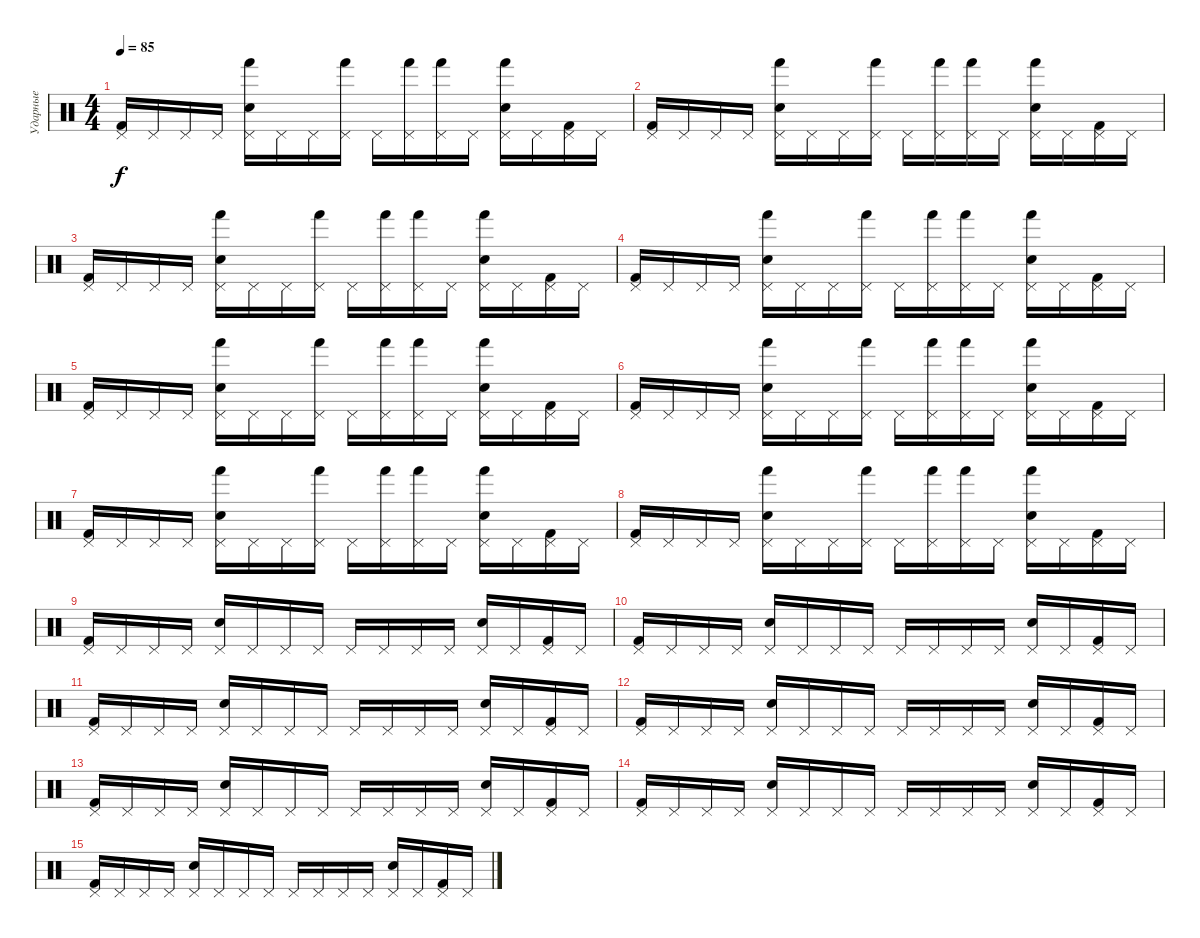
\track ("Ударные" "Ударные") {instrument percussion}
\staff {score}
\articulation defaults
\ts (4 4)
\tempo 85
\clef neutral
\ks c
("Pedal Hi-Hat (hit)" "Kick (hit) 2").16{dy f} "Pedal Hi-Hat (hit)".16 "Pedal Hi-Hat (hit)".16 "Pedal Hi-Hat (hit)".16 ("Pedal Hi-Hat (hit)" "Electric Snare (hit)" "Hand (hit)").16 "Pedal Hi-Hat (hit)".16 "Pedal Hi-Hat (hit)".16 ("Pedal Hi-Hat (hit)" "Hand (hit)").16 "Pedal Hi-Hat (hit)".16 ("Pedal Hi-Hat (hit)" "Hand (hit)").16 ("Pedal Hi-Hat (hit)" "Hand (hit)").16 "Pedal Hi-Hat (hit)".16 ("Pedal Hi-Hat (hit)" "Electric Snare (hit)" "Hand (hit)").16 "Pedal Hi-Hat (hit)".16 ("Pedal Hi-Hat (hit)" "Kick (hit) 2").16 "Pedal Hi-Hat (hit)".16 |
("Pedal Hi-Hat (hit)" "Kick (hit) 2").16 "Pedal Hi-Hat (hit)".16 "Pedal Hi-Hat (hit)".16 "Pedal Hi-Hat (hit)".16 ("Pedal Hi-Hat (hit)" "Electric Snare (hit)" "Hand (hit)").16 "Pedal Hi-Hat (hit)".16 "Pedal Hi-Hat (hit)".16 ("Pedal Hi-Hat (hit)" "Hand (hit)").16 "Pedal Hi-Hat (hit)".16 ("Pedal Hi-Hat (hit)" "Hand (hit)").16 ("Pedal Hi-Hat (hit)" "Hand (hit)").16 "Pedal Hi-Hat (hit)".16 ("Pedal Hi-Hat (hit)" "Electric Snare (hit)" "Hand (hit)").16 "Pedal Hi-Hat (hit)".16 ("Pedal Hi-Hat (hit)" "Kick (hit) 2").16 "Pedal Hi-Hat (hit)".16 |
("Pedal Hi-Hat (hit)" "Kick (hit) 2").16 "Pedal Hi-Hat (hit)".16 "Pedal Hi-Hat (hit)".16 "Pedal Hi-Hat (hit)".16 ("Pedal Hi-Hat (hit)" "Electric Snare (hit)" "Hand (hit)").16 "Pedal Hi-Hat (hit)".16 "Pedal Hi-Hat (hit)".16 ("Pedal Hi-Hat (hit)" "Hand (hit)").16 "Pedal Hi-Hat (hit)".16 ("Pedal Hi-Hat (hit)" "Hand (hit)").16 ("Pedal Hi-Hat (hit)" "Hand (hit)").16 "Pedal Hi-Hat (hit)".16 ("Pedal Hi-Hat (hit)" "Electric Snare (hit)" "Hand (hit)").16 "Pedal Hi-Hat (hit)".16 ("Pedal Hi-Hat (hit)" "Kick (hit) 2").16 "Pedal Hi-Hat (hit)".16 |
("Pedal Hi-Hat (hit)" "Kick (hit) 2").16 "Pedal Hi-Hat (hit)".16 "Pedal Hi-Hat (hit)".16 "Pedal Hi-Hat (hit)".16 ("Pedal Hi-Hat (hit)" "Electric Snare (hit)" "Hand (hit)").16 "Pedal Hi-Hat (hit)".16 "Pedal Hi-Hat (hit)".16 ("Pedal Hi-Hat (hit)" "Hand (hit)").16 "Pedal Hi-Hat (hit)".16 ("Pedal Hi-Hat (hit)" "Hand (hit)").16 ("Pedal Hi-Hat (hit)" "Hand (hit)").16 "Pedal Hi-Hat (hit)".16 ("Pedal Hi-Hat (hit)" "Electric Snare (hit)" "Hand (hit)").16 "Pedal Hi-Hat (hit)".16 ("Pedal Hi-Hat (hit)" "Kick (hit) 2").16 "Pedal Hi-Hat (hit)".16 |
("Pedal Hi-Hat (hit)" "Kick (hit) 2").16 "Pedal Hi-Hat (hit)".16 "Pedal Hi-Hat (hit)".16 "Pedal Hi-Hat (hit)".16 ("Pedal Hi-Hat (hit)" "Electric Snare (hit)" "Hand (hit)").16 "Pedal Hi-Hat (hit)".16 "Pedal Hi-Hat (hit)".16 ("Pedal Hi-Hat (hit)" "Hand (hit)").16 "Pedal Hi-Hat (hit)".16 ("Pedal Hi-Hat (hit)" "Hand (hit)").16 ("Pedal Hi-Hat (hit)" "Hand (hit)").16 "Pedal Hi-Hat (hit)".16 ("Pedal Hi-Hat (hit)" "Electric Snare (hit)" "Hand (hit)").16 "Pedal Hi-Hat (hit)".16 ("Pedal Hi-Hat (hit)" "Kick (hit) 2").16 "Pedal Hi-Hat (hit)".16 |
("Pedal Hi-Hat (hit)" "Kick (hit) 2").16 "Pedal Hi-Hat (hit)".16 "Pedal Hi-Hat (hit)".16 "Pedal Hi-Hat (hit)".16 ("Pedal Hi-Hat (hit)" "Electric Snare (hit)" "Hand (hit)").16 "Pedal Hi-Hat (hit)".16 "Pedal Hi-Hat (hit)".16 ("Pedal Hi-Hat (hit)" "Hand (hit)").16 "Pedal Hi-Hat (hit)".16 ("Pedal Hi-Hat (hit)" "Hand (hit)").16 ("Pedal Hi-Hat (hit)" "Hand (hit)").16 "Pedal Hi-Hat (hit)".16 ("Pedal Hi-Hat (hit)" "Electric Snare (hit)" "Hand (hit)").16 "Pedal Hi-Hat (hit)".16 ("Pedal Hi-Hat (hit)" "Kick (hit) 2").16 "Pedal Hi-Hat (hit)".16 |
("Pedal Hi-Hat (hit)" "Kick (hit) 2").16 "Pedal Hi-Hat (hit)".16 "Pedal Hi-Hat (hit)".16 "Pedal Hi-Hat (hit)".16 ("Pedal Hi-Hat (hit)" "Electric Snare (hit)" "Hand (hit)").16 "Pedal Hi-Hat (hit)".16 "Pedal Hi-Hat (hit)".16 ("Pedal Hi-Hat (hit)" "Hand (hit)").16 "Pedal Hi-Hat (hit)".16 ("Pedal Hi-Hat (hit)" "Hand (hit)").16 ("Pedal Hi-Hat (hit)" "Hand (hit)").16 "Pedal Hi-Hat (hit)".16 ("Pedal Hi-Hat (hit)" "Electric Snare (hit)" "Hand (hit)").16 "Pedal Hi-Hat (hit)".16 ("Pedal Hi-Hat (hit)" "Kick (hit) 2").16 "Pedal Hi-Hat (hit)".16 |
("Pedal Hi-Hat (hit)" "Kick (hit) 2").16 "Pedal Hi-Hat (hit)".16 "Pedal Hi-Hat (hit)".16 "Pedal Hi-Hat (hit)".16 ("Pedal Hi-Hat (hit)" "Electric Snare (hit)" "Hand (hit)").16 "Pedal Hi-Hat (hit)".16 "Pedal Hi-Hat (hit)".16 ("Pedal Hi-Hat (hit)" "Hand (hit)").16 "Pedal Hi-Hat (hit)".16 ("Pedal Hi-Hat (hit)" "Hand (hit)").16 ("Pedal Hi-Hat (hit)" "Hand (hit)").16 "Pedal Hi-Hat (hit)".16 ("Pedal Hi-Hat (hit)" "Electric Snare (hit)" "Hand (hit)").16 "Pedal Hi-Hat (hit)".16 ("Pedal Hi-Hat (hit)" "Kick (hit) 2").16 "Pedal Hi-Hat (hit)".16 |
("Pedal Hi-Hat (hit)" "Kick (hit) 2").16 "Pedal Hi-Hat (hit)".16 "Pedal Hi-Hat (hit)".16 "Pedal Hi-Hat (hit)".16 ("Pedal Hi-Hat (hit)" "Electric Snare (hit)").16 "Pedal Hi-Hat (hit)".16 "Pedal Hi-Hat (hit)".16 "Pedal Hi-Hat (hit)".16 "Pedal Hi-Hat (hit)".16 "Pedal Hi-Hat (hit)".16 "Pedal Hi-Hat (hit)".16 "Pedal Hi-Hat (hit)".16 ("Pedal Hi-Hat (hit)" "Electric Snare (hit)").16 "Pedal Hi-Hat (hit)".16 ("Pedal Hi-Hat (hit)" "Kick (hit) 2").16 "Pedal Hi-Hat (hit)".16 |
("Pedal Hi-Hat (hit)" "Kick (hit) 2").16 "Pedal Hi-Hat (hit)".16 "Pedal Hi-Hat (hit)".16 "Pedal Hi-Hat (hit)".16 ("Pedal Hi-Hat (hit)" "Electric Snare (hit)").16 "Pedal Hi-Hat (hit)".16 "Pedal Hi-Hat (hit)".16 "Pedal Hi-Hat (hit)".16 "Pedal Hi-Hat (hit)".16 "Pedal Hi-Hat (hit)".16 "Pedal Hi-Hat (hit)".16 "Pedal Hi-Hat (hit)".16 ("Pedal Hi-Hat (hit)" "Electric Snare (hit)").16 "Pedal Hi-Hat (hit)".16 ("Pedal Hi-Hat (hit)" "Kick (hit) 2").16 "Pedal Hi-Hat (hit)".16 |
("Pedal Hi-Hat (hit)" "Kick (hit) 2").16 "Pedal Hi-Hat (hit)".16 "Pedal Hi-Hat (hit)".16 "Pedal Hi-Hat (hit)".16 ("Pedal Hi-Hat (hit)" "Electric Snare (hit)").16 "Pedal Hi-Hat (hit)".16 "Pedal Hi-Hat (hit)".16 "Pedal Hi-Hat (hit)".16 "Pedal Hi-Hat (hit)".16 "Pedal Hi-Hat (hit)".16 "Pedal Hi-Hat (hit)".16 "Pedal Hi-Hat (hit)".16 ("Pedal Hi-Hat (hit)" "Electric Snare (hit)").16 "Pedal Hi-Hat (hit)".16 ("Pedal Hi-Hat (hit)" "Kick (hit) 2").16 "Pedal Hi-Hat (hit)".16 |
("Pedal Hi-Hat (hit)" "Kick (hit) 2").16 "Pedal Hi-Hat (hit)".16 "Pedal Hi-Hat (hit)".16 "Pedal Hi-Hat (hit)".16 ("Pedal Hi-Hat (hit)" "Electric Snare (hit)").16 "Pedal Hi-Hat (hit)".16 "Pedal Hi-Hat (hit)".16 "Pedal Hi-Hat (hit)".16 "Pedal Hi-Hat (hit)".16 "Pedal Hi-Hat (hit)".16 "Pedal Hi-Hat (hit)".16 "Pedal Hi-Hat (hit)".16 ("Pedal Hi-Hat (hit)" "Electric Snare (hit)").16 "Pedal Hi-Hat (hit)".16 ("Pedal Hi-Hat (hit)" "Kick (hit) 2").16 "Pedal Hi-Hat (hit)".16 |
("Pedal Hi-Hat (hit)" "Kick (hit) 2").16 "Pedal Hi-Hat (hit)".16 "Pedal Hi-Hat (hit)".16 "Pedal Hi-Hat (hit)".16 ("Pedal Hi-Hat (hit)" "Electric Snare (hit)").16 "Pedal Hi-Hat (hit)".16 "Pedal Hi-Hat (hit)".16 "Pedal Hi-Hat (hit)".16 "Pedal Hi-Hat (hit)".16 "Pedal Hi-Hat (hit)".16 "Pedal Hi-Hat (hit)".16 "Pedal Hi-Hat (hit)".16 ("Pedal Hi-Hat (hit)" "Electric Snare (hit)").16 "Pedal Hi-Hat (hit)".16 ("Pedal Hi-Hat (hit)" "Kick (hit) 2").16 "Pedal Hi-Hat (hit)".16 |
("Pedal Hi-Hat (hit)" "Kick (hit) 2").16 "Pedal Hi-Hat (hit)".16 "Pedal Hi-Hat (hit)".16 "Pedal Hi-Hat (hit)".16 ("Pedal Hi-Hat (hit)" "Electric Snare (hit)").16 "Pedal Hi-Hat (hit)".16 "Pedal Hi-Hat (hit)".16 "Pedal Hi-Hat (hit)".16 "Pedal Hi-Hat (hit)".16 "Pedal Hi-Hat (hit)".16 "Pedal Hi-Hat (hit)".16 "Pedal Hi-Hat (hit)".16 ("Pedal Hi-Hat (hit)" "Electric Snare (hit)").16 "Pedal Hi-Hat (hit)".16 ("Pedal Hi-Hat (hit)" "Kick (hit) 2").16 "Pedal Hi-Hat (hit)".16 |
("Pedal Hi-Hat (hit)" "Kick (hit) 2").16 "Pedal Hi-Hat (hit)".16 "Pedal Hi-Hat (hit)".16 "Pedal Hi-Hat (hit)".16 ("Pedal Hi-Hat (hit)" "Electric Snare (hit)").16 "Pedal Hi-Hat (hit)".16 "Pedal Hi-Hat (hit)".16 "Pedal Hi-Hat (hit)".16 "Pedal Hi-Hat (hit)".16 "Pedal Hi-Hat (hit)".16 "Pedal Hi-Hat (hit)".16 "Pedal Hi-Hat (hit)".16 ("Pedal Hi-Hat (hit)" "Electric Snare (hit)").16 "Pedal Hi-Hat (hit)".16 ("Pedal Hi-Hat (hit)" "Kick (hit) 2").16 "Pedal Hi-Hat (hit)".16
